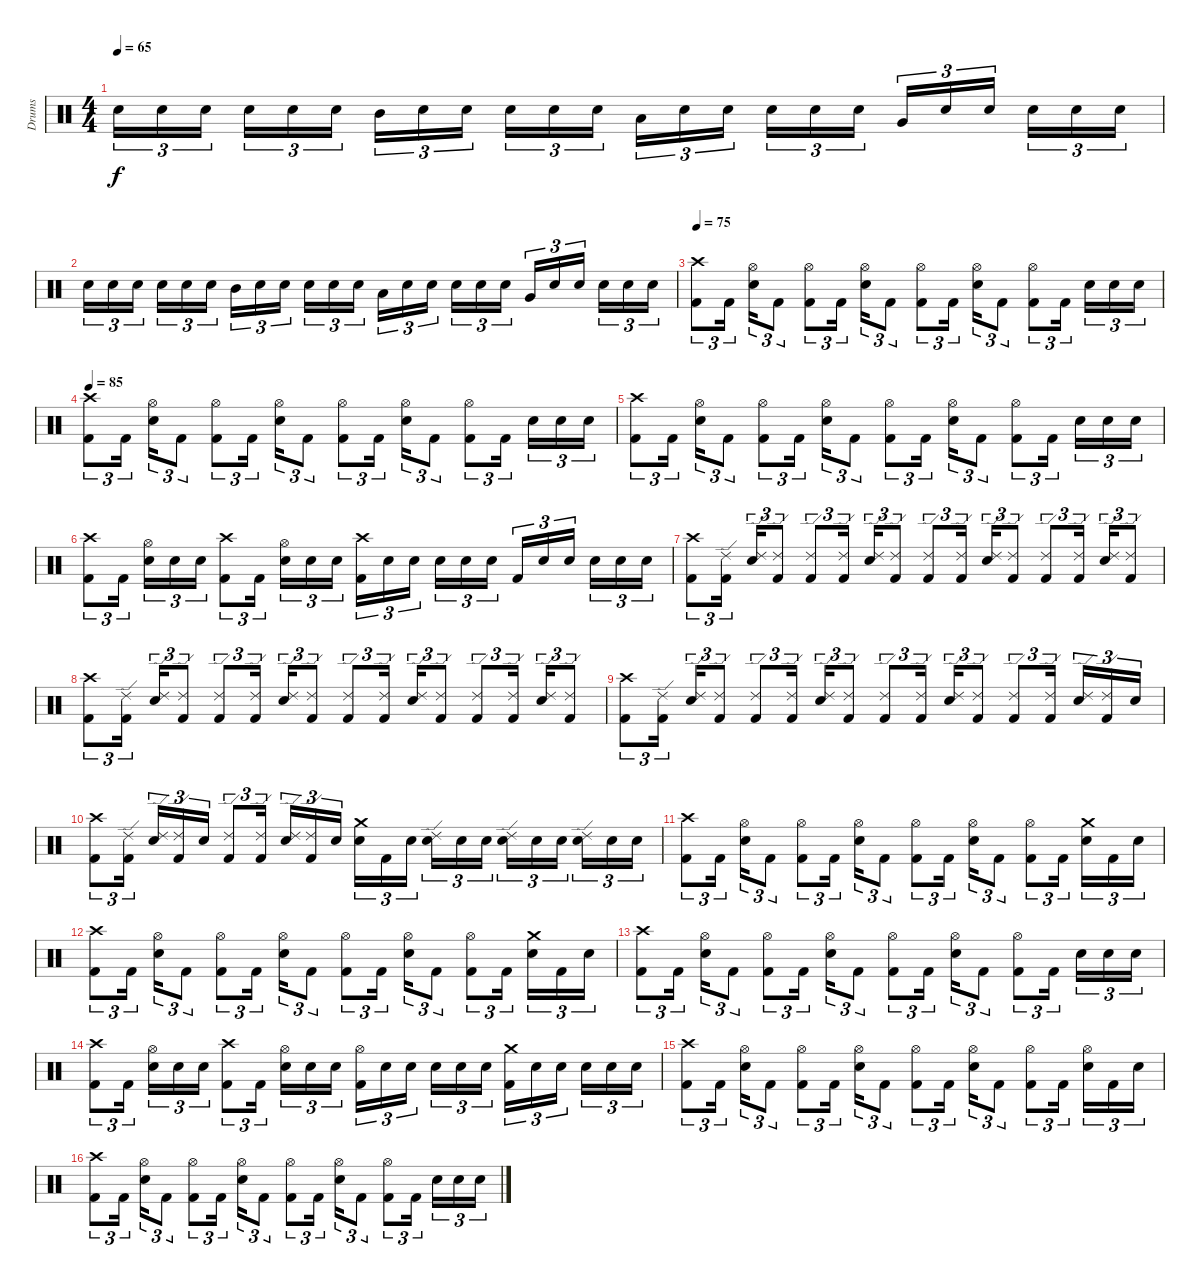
\track ("Drums" "Drums") {instrument percussion}
\staff {score}
\articulation defaults
\ts (4 4)
\tempo 65
\clef neutral
\ks c "Electric Snare (hit)".16{tu (3 2) dy f} "Electric Snare (hit)".16{tu (3 2)} "Electric Snare (hit)".16{tu (3 2)} "Electric Snare (hit)".16{tu (3 2)} "Electric Snare (hit)".16{tu (3 2)} "Electric Snare (hit)".16{tu (3 2)} "Mid Tom (hit)".16{tu (3 2)} "Electric Snare (hit)".16{tu (3 2)} "Electric Snare (hit)".16{tu (3 2)} "Electric Snare (hit)".16{tu (3 2)} "Electric Snare (hit)".16{tu (3 2)} "Electric Snare (hit)".16{tu (3 2)} "Low Tom (hit)".16{tu (3 2)} "Electric Snare (hit)".16{tu (3 2)} "Electric Snare (hit)".16{tu (3 2)} "Electric Snare (hit)".16{tu (3 2)} "Electric Snare (hit)".16{tu (3 2)} "Electric Snare (hit)".16{tu (3 2)} "Very Low Tom (hit)".16{tu (3 2)} "Electric Snare (hit)".16{tu (3 2)} "Electric Snare (hit)".16{tu (3 2)} "Electric Snare (hit)".16{tu (3 2)} "Electric Snare (hit)".16{tu (3 2)} "Electric Snare (hit)".16{tu (3 2)}
|
"Electric Snare (hit)".16{tu (3 2)} "Electric Snare (hit)".16{tu (3 2)} "Electric Snare (hit)".16{tu (3 2)} "Electric Snare (hit)".16{tu (3 2)} "Electric Snare (hit)".16{tu (3 2)} "Electric Snare (hit)".16{tu (3 2)} "Mid Tom (hit)".16{tu (3 2)} "Electric Snare (hit)".16{tu (3 2)} "Electric Snare (hit)".16{tu (3 2)} "Electric Snare (hit)".16{tu (3 2)} "Electric Snare (hit)".16{tu (3 2)} "Electric Snare (hit)".16{tu (3 2)} "Low Tom (hit)".16{tu (3 2)} "Electric Snare (hit)".16{tu (3 2)} "Electric Snare (hit)".16{tu (3 2)} "Electric Snare (hit)".16{tu (3 2)} "Electric Snare (hit)".16{tu (3 2)} "Electric Snare (hit)".16{tu (3 2)} "Very Low Tom (hit)".16{tu (3 2)} "Electric Snare (hit)".16{tu (3 2)} "Electric Snare (hit)".16{tu (3 2)} "Electric Snare (hit)".16{tu (3 2)} "Electric Snare (hit)".16{tu (3 2)} "Electric Snare (hit)".16{tu (3 2)} |
\tempo 75
("Crash high (hit)" "Kick (hit) 2").8{tu (3 2)} "Kick (hit) 2".16{tu (3 2)} ("Hi-Hat (open)" "Electric Snare (hit)").16{tu (3 2)} "Kick (hit) 2".8{tu (3 2)} ("Hi-Hat (open)" "Kick (hit) 2").8{tu (3 2)} "Kick (hit) 2".16{tu (3 2)} ("Hi-Hat (open)" "Electric Snare (hit)").16{tu (3 2)} "Kick (hit) 2".8{tu (3 2)} ("Hi-Hat (open)" "Kick (hit) 2").8{tu (3 2)} "Kick (hit) 2".16{tu (3 2)} ("Hi-Hat (open)" "Electric Snare (hit)").16{tu (3 2)} "Kick (hit) 2".8{tu (3 2)} ("Hi-Hat (open)" "Kick (hit) 2").8{tu (3 2)} "Kick (hit) 2".16{tu (3 2)} "Electric Snare (hit)".16{tu (3 2)} "Electric Snare (hit)".16{tu (3 2)} "Electric Snare (hit)".16{tu (3 2)} |
\tempo 85
("Crash high (hit)" "Kick (hit) 2").8{tu (3 2)} "Kick (hit) 2".16{tu (3 2)} ("Hi-Hat (open)" "Electric Snare (hit)").16{tu (3 2)} "Kick (hit) 2".8{tu (3 2)} ("Hi-Hat (open)" "Kick (hit) 2").8{tu (3 2)} "Kick (hit) 2".16{tu (3 2)} ("Hi-Hat (open)" "Electric Snare (hit)").16{tu (3 2)} "Kick (hit) 2".8{tu (3 2)} ("Hi-Hat (open)" "Kick (hit) 2").8{tu (3 2)} "Kick (hit) 2".16{tu (3 2)} ("Hi-Hat (open)" "Electric Snare (hit)").16{tu (3 2)} "Kick (hit) 2".8{tu (3 2)} ("Hi-Hat (open)" "Kick (hit) 2").8{tu (3 2)} "Kick (hit) 2".16{tu (3 2)} "Electric Snare (hit)".16{tu (3 2)} "Electric Snare (hit)".16{tu (3 2)} "Electric Snare (hit)".16{tu (3 2)} |
("Crash high (hit)" "Kick (hit) 2").8{tu (3 2)} "Kick (hit) 2".16{tu (3 2)} ("Hi-Hat (open)" "Electric Snare (hit)").16{tu (3 2)} "Kick (hit) 2".8{tu (3 2)} ("Hi-Hat (open)" "Kick (hit) 2").8{tu (3 2)} "Kick (hit) 2".16{tu (3 2)} ("Hi-Hat (open)" "Electric Snare (hit)").16{tu (3 2)} "Kick (hit) 2".8{tu (3 2)} ("Hi-Hat (open)" "Kick (hit) 2").8{tu (3 2)} "Kick (hit) 2".16{tu (3 2)} ("Hi-Hat (open)" "Electric Snare (hit)").16{tu (3 2)} "Kick (hit) 2".8{tu (3 2)} ("Hi-Hat (open)" "Kick (hit) 2").8{tu (3 2)} "Kick (hit) 2".16{tu (3 2)} "Electric Snare (hit)".16{tu (3 2)} "Electric Snare (hit)".16{tu (3 2)} "Electric Snare (hit)".16{tu (3 2)} |
("Crash high (hit)" "Kick (hit) 2").8{tu (3 2)} "Kick (hit) 2".16{tu (3 2)} ("Hi-Hat (open)" "Electric Snare (hit)").16{tu (3 2)} "Electric Snare (hit)".16{tu (3 2)} "Electric Snare (hit)".16{tu (3 2)} ("Crash high (hit)" "Kick (hit) 2").8{tu (3 2)} "Kick (hit) 2".16{tu (3 2)} ("Hi-Hat (open)" "Electric Snare (hit)").16{tu (3 2)} "Electric Snare (hit)".16{tu (3 2)} "Electric Snare (hit)".16{tu (3 2)} ("Crash high (hit)" "Kick (hit) 2").16{tu (3 2)} "Electric Snare (hit)".16{tu (3 2)} "Electric Snare (hit)".16{tu (3 2)} "Electric Snare (hit)".16{tu (3 2)} "Electric Snare (hit)".16{tu (3 2)} "Electric Snare (hit)".16{tu (3 2)} "Kick (hit) 2".16{tu (3 2)} "Electric Snare (hit)".16{tu (3 2)} "Electric Snare (hit)".16{tu (3 2)} "Electric Snare (hit)".16{tu (3 2)} "Electric Snare (hit)".16{tu (3 2)} "Electric Snare (hit)".16{tu (3 2)} |
("Crash high (hit)" "Kick (hit) 2").8{tu (3 2)} ("Ride (edge) 2" "Kick (hit) 2").16{tu (3 2)} ("Ride (edge) 2" "Electric Snare (hit)").16{tu (3 2)} ("Ride (edge) 2" "Kick (hit) 2").8{tu (3 2)} ("Ride (edge) 2" "Kick (hit) 2").8{tu (3 2)} ("Ride (edge) 2" "Kick (hit) 2").16{tu (3 2)} ("Ride (edge) 2" "Electric Snare (hit)").16{tu (3 2)} ("Ride (edge) 2" "Kick (hit) 2").8{tu (3 2)} ("Ride (edge) 2" "Kick (hit) 2").8{tu (3 2)} ("Ride (edge) 2" "Kick (hit) 2").16{tu (3 2)} ("Ride (edge) 2" "Electric Snare (hit)").16{tu (3 2)} ("Ride (edge) 2" "Kick (hit) 2").8{tu (3 2)} ("Ride (edge) 2" "Kick (hit) 2").8{tu (3 2)} ("Ride (edge) 2" "Kick (hit) 2").16{tu (3 2)} ("Ride (edge) 2" "Electric Snare (hit)").16{tu (3 2)} ("Ride (edge) 2" "Kick (hit) 2").8{tu (3 2)} |
("Crash high (hit)" "Kick (hit) 2").8{tu (3 2)} ("Ride (edge) 2" "Kick (hit) 2").16{tu (3 2)} ("Ride (edge) 2" "Electric Snare (hit)").16{tu (3 2)} ("Ride (edge) 2" "Kick (hit) 2").8{tu (3 2)} ("Ride (edge) 2" "Kick (hit) 2").8{tu (3 2)} ("Ride (edge) 2" "Kick (hit) 2").16{tu (3 2)} ("Ride (edge) 2" "Electric Snare (hit)").16{tu (3 2)} ("Ride (edge) 2" "Kick (hit) 2").8{tu (3 2)} ("Ride (edge) 2" "Kick (hit) 2").8{tu (3 2)} ("Ride (edge) 2" "Kick (hit) 2").16{tu (3 2)} ("Ride (edge) 2" "Electric Snare (hit)").16{tu (3 2)} ("Ride (edge) 2" "Kick (hit) 2").8{tu (3 2)} ("Ride (edge) 2" "Kick (hit) 2").8{tu (3 2)} ("Ride (edge) 2" "Kick (hit) 2").16{tu (3 2)} ("Ride (edge) 2" "Electric Snare (hit)").16{tu (3 2)} ("Ride (edge) 2" "Kick (hit) 2").8{tu (3 2)} |
("Crash high (hit)" "Kick (hit) 2").8{tu (3 2)} ("Ride (edge) 2" "Kick (hit) 2").16{tu (3 2)} ("Ride (edge) 2" "Electric Snare (hit)").16{tu (3 2)} ("Ride (edge) 2" "Kick (hit) 2").8{tu (3 2)} ("Ride (edge) 2" "Kick (hit) 2").8{tu (3 2)} ("Ride (edge) 2" "Kick (hit) 2").16{tu (3 2)} ("Ride (edge) 2" "Electric Snare (hit)").16{tu (3 2)} ("Ride (edge) 2" "Kick (hit) 2").8{tu (3 2)} ("Ride (edge) 2" "Kick (hit) 2").8{tu (3 2)} ("Ride (edge) 2" "Kick (hit) 2").16{tu (3 2)} ("Ride (edge) 2" "Electric Snare (hit)").16{tu (3 2)} ("Ride (edge) 2" "Kick (hit) 2").8{tu (3 2)} ("Ride (edge) 2" "Kick (hit) 2").8{tu (3 2)} ("Ride (edge) 2" "Kick (hit) 2").16{tu (3 2)} ("Ride (edge) 2" "Electric Snare (hit)").16{tu (3 2)} ("Ride (edge) 2" "Kick (hit) 2").16{tu (3 2)} "Electric Snare (hit)".16{tu (3 2)} |
("Crash high (hit)" "Kick (hit) 2").8{tu (3 2)} ("Ride (edge) 2" "Kick (hit) 2").16{tu (3 2)} ("Ride (edge) 2" "Electric Snare (hit)").16{tu (3 2)} ("Ride (edge) 2" "Kick (hit) 2").16{tu (3 2)} "Electric Snare (hit)".16{tu (3 2)} ("Ride (edge) 2" "Kick (hit) 2").8{tu (3 2)} ("Ride (edge) 2" "Kick (hit) 2").16{tu (3 2)} ("Ride (edge) 2" "Electric Snare (hit)").16{tu (3 2)} ("Ride (edge) 2" "Kick (hit) 2").16{tu (3 2)} "Electric Snare (hit)".16{tu (3 2)} ("Crash medium (hit)" "Electric Snare (hit)").16{tu (3 2)} "Kick (hit) 2".16{tu (3 2)} "Electric Snare (hit)".16{tu (3 2)} ("Ride (edge) 2" "Electric Snare (hit)").16{tu (3 2)} "Electric Snare (hit)".16{tu (3 2)} "Electric Snare (hit)".16{tu (3 2)} ("Ride (edge) 2" "Electric Snare (hit)").16{tu (3 2)} "Electric Snare (hit)".16{tu (3 2)} "Electric Snare (hit)".16{tu (3 2)} ("Ride (edge) 2" "Electric Snare (hit)").16{tu (3 2)} "Electric Snare (hit)".16{tu (3 2)} "Electric Snare (hit)".16{tu (3 2)} |
("Crash high (hit)" "Kick (hit) 2").8{tu (3 2)} "Kick (hit) 2".16{tu (3 2)} ("Hi-Hat (open)" "Electric Snare (hit)").16{tu (3 2)} "Kick (hit) 2".8{tu (3 2)} ("Hi-Hat (open)" "Kick (hit) 2").8{tu (3 2)} "Kick (hit) 2".16{tu (3 2)} ("Hi-Hat (open)" "Electric Snare (hit)").16{tu (3 2)} "Kick (hit) 2".8{tu (3 2)} ("Hi-Hat (open)" "Kick (hit) 2").8{tu (3 2)} "Kick (hit) 2".16{tu (3 2)} ("Hi-Hat (open)" "Electric Snare (hit)").16{tu (3 2)} "Kick (hit) 2".8{tu (3 2)} ("Hi-Hat (open)" "Kick (hit) 2").8{tu (3 2)} "Kick (hit) 2".16{tu (3 2)} ("Crash medium (hit)" "Electric Snare (hit)").16{tu (3 2)} "Kick (hit) 2".16{tu (3 2)} "Electric Snare (hit)".16{tu (3 2)} |
("Crash high (hit)" "Kick (hit) 2").8{tu (3 2)} "Kick (hit) 2".16{tu (3 2)} ("Hi-Hat (open)" "Electric Snare (hit)").16{tu (3 2)} "Kick (hit) 2".8{tu (3 2)} ("Hi-Hat (open)" "Kick (hit) 2").8{tu (3 2)} "Kick (hit) 2".16{tu (3 2)} ("Hi-Hat (open)" "Electric Snare (hit)").16{tu (3 2)} "Kick (hit) 2".8{tu (3 2)} ("Hi-Hat (open)" "Kick (hit) 2").8{tu (3 2)} "Kick (hit) 2".16{tu (3 2)} ("Hi-Hat (open)" "Electric Snare (hit)").16{tu (3 2)} "Kick (hit) 2".8{tu (3 2)} ("Hi-Hat (open)" "Kick (hit) 2").8{tu (3 2)} "Kick (hit) 2".16{tu (3 2)} ("Crash medium (hit)" "Electric Snare (hit)").16{tu (3 2)} "Kick (hit) 2".16{tu (3 2)} "Electric Snare (hit)".16{tu (3 2)} |
("Crash high (hit)" "Kick (hit) 2").8{tu (3 2)} "Kick (hit) 2".16{tu (3 2)} ("Hi-Hat (open)" "Electric Snare (hit)").16{tu (3 2)} "Kick (hit) 2".8{tu (3 2)} ("Hi-Hat (open)" "Kick (hit) 2").8{tu (3 2)} "Kick (hit) 2".16{tu (3 2)} ("Hi-Hat (open)" "Electric Snare (hit)").16{tu (3 2)} "Kick (hit) 2".8{tu (3 2)} ("Hi-Hat (open)" "Kick (hit) 2").8{tu (3 2)} "Kick (hit) 2".16{tu (3 2)} ("Hi-Hat (open)" "Electric Snare (hit)").16{tu (3 2)} "Kick (hit) 2".8{tu (3 2)} ("Hi-Hat (open)" "Kick (hit) 2").8{tu (3 2)} "Kick (hit) 2".16{tu (3 2)} "Electric Snare (hit)".16{tu (3 2)} "Electric Snare (hit)".16{tu (3 2)} "Electric Snare (hit)".16{tu (3 2)} |
("Crash high (hit)" "Kick (hit) 2").8{tu (3 2)} "Kick (hit) 2".16{tu (3 2)} ("Hi-Hat (open)" "Electric Snare (hit)").16{tu (3 2)} "Electric Snare (hit)".16{tu (3 2)} "Electric Snare (hit)".16{tu (3 2)} ("Crash high (hit)" "Kick (hit) 2").8{tu (3 2)} "Kick (hit) 2".16{tu (3 2)} ("Hi-Hat (open)" "Electric Snare (hit)").16{tu (3 2)} "Electric Snare (hit)".16{tu (3 2)} "Electric Snare (hit)".16{tu (3 2)} ("Hi-Hat (open)" "Kick (hit) 2").16{tu (3 2)} "Electric Snare (hit)".16{tu (3 2)} "Electric Snare (hit)".16{tu (3 2)} "Electric Snare (hit)".16{tu (3 2)} "Electric Snare (hit)".16{tu (3 2)} "Electric Snare (hit)".16{tu (3 2)} ("Crash medium (hit)" "Kick (hit) 2").16{tu (3 2)} "Electric Snare (hit)".16{tu (3 2)} "Electric Snare (hit)".16{tu (3 2)} "Electric Snare (hit)".16{tu (3 2)} "Electric Snare (hit)".16{tu (3 2)} "Electric Snare (hit)".16{tu (3 2)} |
("Crash high (hit)" "Kick (hit) 2").8{tu (3 2)} "Kick (hit) 2".16{tu (3 2)} ("Hi-Hat (open)" "Electric Snare (hit)").16{tu (3 2)} "Kick (hit) 2".8{tu (3 2)} ("Hi-Hat (open)" "Kick (hit) 2").8{tu (3 2)} "Kick (hit) 2".16{tu (3 2)} ("Hi-Hat (open)" "Electric Snare (hit)").16{tu (3 2)} "Kick (hit) 2".8{tu (3 2)} ("Hi-Hat (open)" "Kick (hit) 2").8{tu (3 2)} "Kick (hit) 2".16{tu (3 2)} ("Hi-Hat (open)" "Electric Snare (hit)").16{tu (3 2)} "Kick (hit) 2".8{tu (3 2)} ("Hi-Hat (open)" "Kick (hit) 2").8{tu (3 2)} "Kick (hit) 2".16{tu (3 2)} ("Hi-Hat (open)" "Electric Snare (hit)").16{tu (3 2)} "Kick (hit) 2".16{tu (3 2)} "Electric Snare (hit)".16{tu (3 2)} |
("Crash high (hit)" "Kick (hit) 2").8{tu (3 2)} "Kick (hit) 2".16{tu (3 2)} ("Hi-Hat (open)" "Electric Snare (hit)").16{tu (3 2)} "Kick (hit) 2".8{tu (3 2)} ("Hi-Hat (open)" "Kick (hit) 2").8{tu (3 2)} "Kick (hit) 2".16{tu (3 2)} ("Hi-Hat (open)" "Electric Snare (hit)").16{tu (3 2)} "Kick (hit) 2".8{tu (3 2)} ("Hi-Hat (open)" "Kick (hit) 2").8{tu (3 2)} "Kick (hit) 2".16{tu (3 2)} ("Hi-Hat (open)" "Electric Snare (hit)").16{tu (3 2)} "Kick (hit) 2".8{tu (3 2)} ("Hi-Hat (open)" "Kick (hit) 2").8{tu (3 2)} "Kick (hit) 2".16{tu (3 2)} "Electric Snare (hit)".16{tu (3 2)} "Electric Snare (hit)".16{tu (3 2)} "Electric Snare (hit)".16{tu (3 2)}
